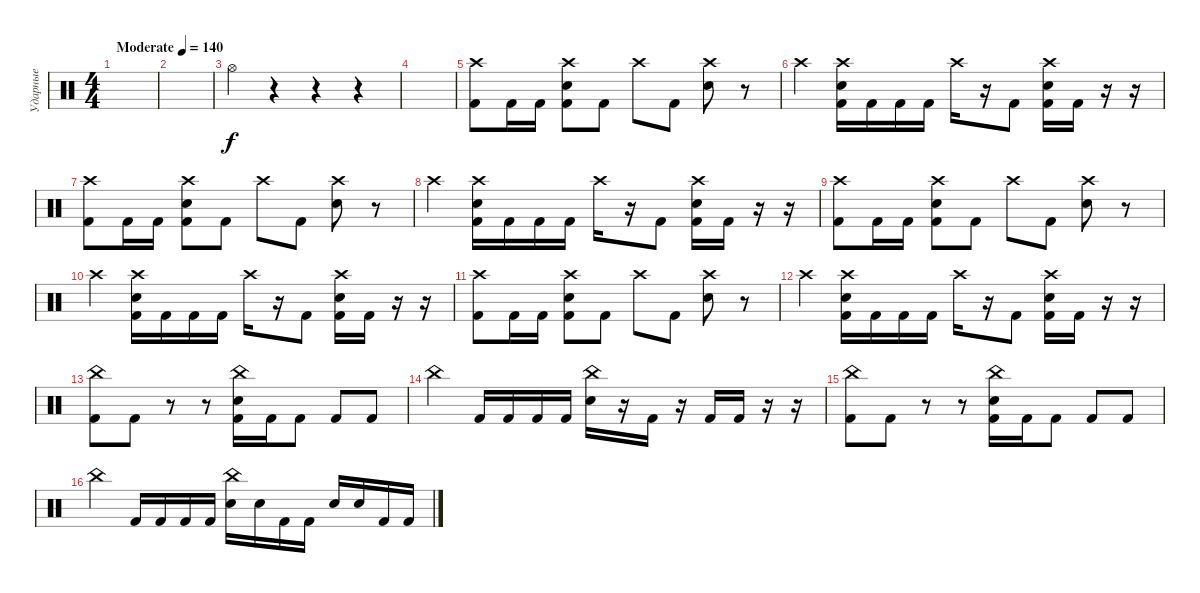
\track ("Ударные" "Ударные") {instrument percussion}
\staff {score}
\articulation defaults
\ts (4 4)
\tempo (140 "Moderate")
\clef neutral
\ks c
|
|
"Hi-Hat (open)".4 r.4 r.4 r.4 |
|
("Crash high (hit)" "Kick (hit) 2").8 "Kick (hit) 2".16 "Kick (hit) 2".16 ("Crash high (hit)" "Electric Snare (hit)" "Kick (hit) 2").8 "Kick (hit) 2".8 "Crash high (hit)".8 "Kick (hit) 2".8 ("Crash high (hit)" "Electric Snare (hit)").8 r.8 |
"Crash high (hit)".4 ("Crash high (hit)" "Electric Snare (hit)" "Kick (hit) 2").16 "Kick (hit) 2".16 "Kick (hit) 2".16 "Kick (hit) 2".16 "Crash high (hit)".16 r.16 "Kick (hit) 2".8 ("Crash high (hit)" "Electric Snare (hit)" "Kick (hit) 2").16 "Kick (hit) 2".16 r.16 r.16 |
("Crash high (hit)" "Kick (hit) 2").8 "Kick (hit) 2".16 "Kick (hit) 2".16 ("Crash high (hit)" "Electric Snare (hit)" "Kick (hit) 2").8 "Kick (hit) 2".8 "Crash high (hit)".8 "Kick (hit) 2".8 ("Crash high (hit)" "Electric Snare (hit)").8 r.8 |
"Crash high (hit)".4 ("Crash high (hit)" "Electric Snare (hit)" "Kick (hit) 2").16 "Kick (hit) 2".16 "Kick (hit) 2".16 "Kick (hit) 2".16 "Crash high (hit)".16 r.16 "Kick (hit) 2".8 ("Crash high (hit)" "Electric Snare (hit)" "Kick (hit) 2").16 "Kick (hit) 2".16 r.16 r.16 |
("Crash high (hit)" "Kick (hit) 2").8 "Kick (hit) 2".16 "Kick (hit) 2".16 ("Crash high (hit)" "Electric Snare (hit)" "Kick (hit) 2").8 "Kick (hit) 2".8 "Crash high (hit)".8 "Kick (hit) 2".8 ("Crash high (hit)" "Electric Snare (hit)").8 r.8 |
"Crash high (hit)".4 ("Crash high (hit)" "Electric Snare (hit)" "Kick (hit) 2").16 "Kick (hit) 2".16 "Kick (hit) 2".16 "Kick (hit) 2".16 "Crash high (hit)".16 r.16 "Kick (hit) 2".8 ("Crash high (hit)" "Electric Snare (hit)" "Kick (hit) 2").16 "Kick (hit) 2".16 r.16 r.16 |
("Crash high (hit)" "Kick (hit) 2").8 "Kick (hit) 2".16 "Kick (hit) 2".16 ("Crash high (hit)" "Electric Snare (hit)" "Kick (hit) 2").8 "Kick (hit) 2".8 "Crash high (hit)".8 "Kick (hit) 2".8 ("Crash high (hit)" "Electric Snare (hit)").8 r.8 |
"Crash high (hit)".4 ("Crash high (hit)" "Electric Snare (hit)" "Kick (hit) 2").16 "Kick (hit) 2".16 "Kick (hit) 2".16 "Kick (hit) 2".16 "Crash high (hit)".16 r.16 "Kick (hit) 2".8 ("Crash high (hit)" "Electric Snare (hit)" "Kick (hit) 2").16 "Kick (hit) 2".16 r.16 r.16 |
("China (hit)" "Kick (hit) 2").8 "Kick (hit) 2".8 r.8 r.8 ("China (hit)" "Electric Snare (hit)" "Kick (hit) 2").16 "Kick (hit) 2".16 "Kick (hit) 2".8 "Kick (hit) 2".8 "Kick (hit) 2".8 |
"China (hit)".4 "Kick (hit) 2".16 "Kick (hit) 2".16 "Kick (hit) 2".16 "Kick (hit) 2".16 ("China (hit)" "Electric Snare (hit)").16 r.16 "Kick (hit) 2".16 r.16 "Kick (hit) 2".16 "Kick (hit) 2".16 r.16 r.16 |
("China (hit)" "Kick (hit) 2").8 "Kick (hit) 2".8 r.8 r.8 ("China (hit)" "Electric Snare (hit)" "Kick (hit) 2").16 "Kick (hit) 2".16 "Kick (hit) 2".8 "Kick (hit) 2".8 "Kick (hit) 2".8 |
"China (hit)".4 "Kick (hit) 2".16 "Kick (hit) 2".16 "Kick (hit) 2".16 "Kick (hit) 2".16 ("China (hit)" "Electric Snare (hit)").16 "Electric Snare (hit)".16 "Kick (hit) 2".16 "Kick (hit) 2".16 "Electric Snare (hit)".16 "Electric Snare (hit)".16 "Kick (hit) 2".16 "Kick (hit) 2".16
